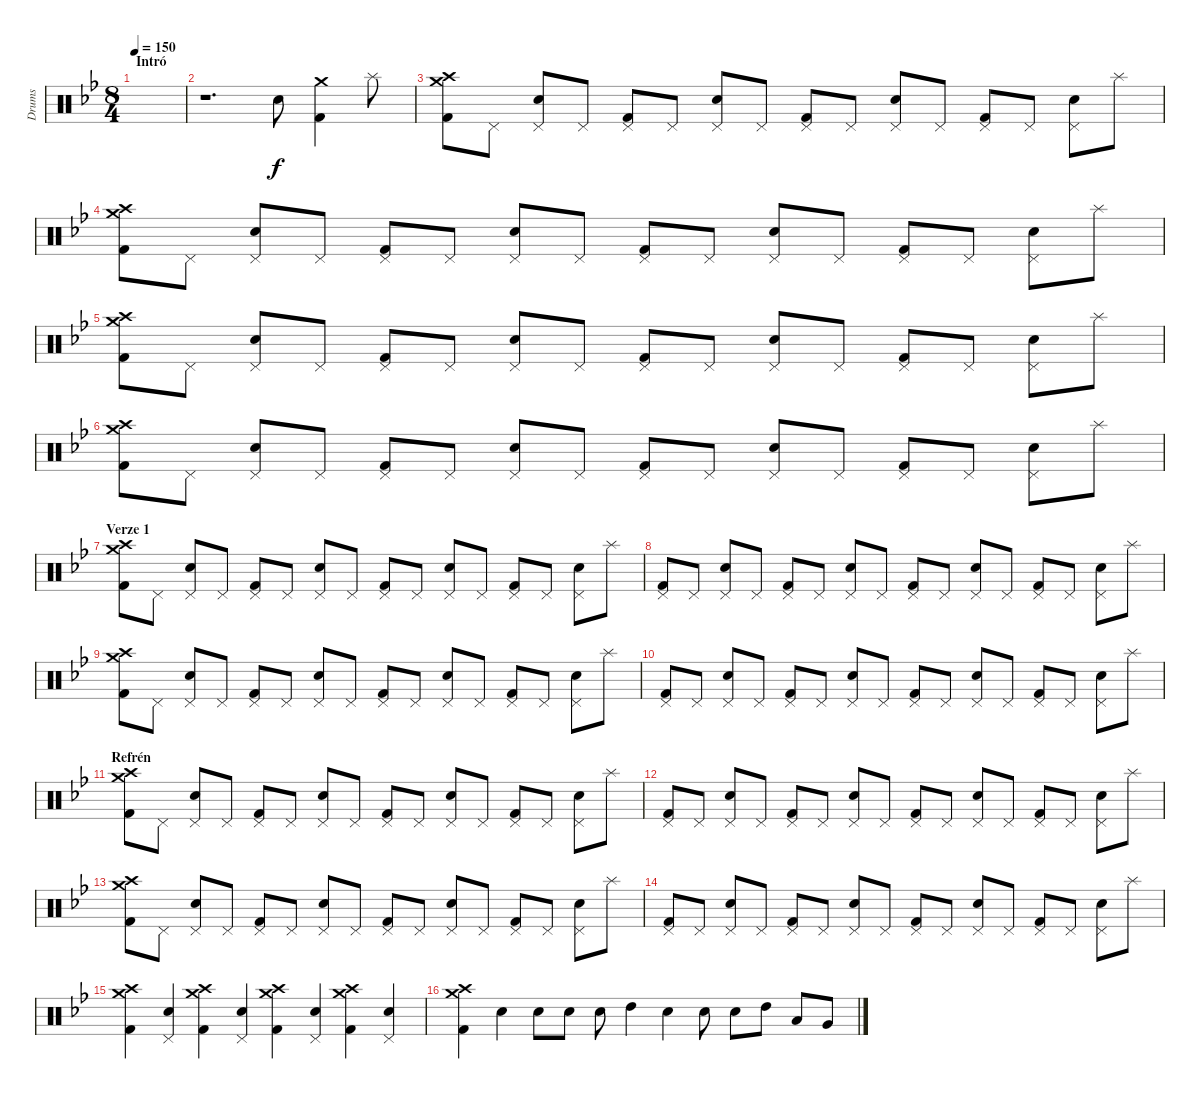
\track ("Drums" "Drums") {instrument percussion}
\staff {score}
\articulation defaults
\ts (8 4)
\section ("" "Intró")
\tempo 150
\clef neutral
\ks gminor
|
r.1{d} "Snare (hit) 2".8 ("Crash medium (hit)" "Kick (hit) 2").4 "Splash (hit)".8 |
("Crash medium (hit)" "Crash high (hit)" "Kick (hit) 2").8 "Pedal Hi-Hat (hit)".8 ("Pedal Hi-Hat (hit)" "Snare (hit) 2").8 "Pedal Hi-Hat (hit)".8 ("Pedal Hi-Hat (hit)" "Kick (hit) 2").8 "Pedal Hi-Hat (hit)".8 ("Pedal Hi-Hat (hit)" "Snare (hit) 2").8 "Pedal Hi-Hat (hit)".8 ("Pedal Hi-Hat (hit)" "Kick (hit) 2").8 "Pedal Hi-Hat (hit)".8 ("Pedal Hi-Hat (hit)" "Snare (hit) 2").8 "Pedal Hi-Hat (hit)".8 ("Pedal Hi-Hat (hit)" "Kick (hit) 2").8 "Pedal Hi-Hat (hit)".8 ("Pedal Hi-Hat (hit)" "Snare (hit) 2").8 "Splash (hit)".8 |
("Crash medium (hit)" "Crash high (hit)" "Kick (hit) 2").8 "Pedal Hi-Hat (hit)".8 ("Pedal Hi-Hat (hit)" "Snare (hit) 2").8 "Pedal Hi-Hat (hit)".8 ("Pedal Hi-Hat (hit)" "Kick (hit) 2").8 "Pedal Hi-Hat (hit)".8 ("Pedal Hi-Hat (hit)" "Snare (hit) 2").8 "Pedal Hi-Hat (hit)".8 ("Pedal Hi-Hat (hit)" "Kick (hit) 2").8 "Pedal Hi-Hat (hit)".8 ("Pedal Hi-Hat (hit)" "Snare (hit) 2").8 "Pedal Hi-Hat (hit)".8 ("Pedal Hi-Hat (hit)" "Kick (hit) 2").8 "Pedal Hi-Hat (hit)".8 ("Pedal Hi-Hat (hit)" "Snare (hit) 2").8 "Splash (hit)".8 |
("Crash medium (hit)" "Crash high (hit)" "Kick (hit) 2").8 "Pedal Hi-Hat (hit)".8 ("Pedal Hi-Hat (hit)" "Snare (hit) 2").8 "Pedal Hi-Hat (hit)".8 ("Pedal Hi-Hat (hit)" "Kick (hit) 2").8 "Pedal Hi-Hat (hit)".8 ("Pedal Hi-Hat (hit)" "Snare (hit) 2").8 "Pedal Hi-Hat (hit)".8 ("Pedal Hi-Hat (hit)" "Kick (hit) 2").8 "Pedal Hi-Hat (hit)".8 ("Pedal Hi-Hat (hit)" "Snare (hit) 2").8 "Pedal Hi-Hat (hit)".8 ("Pedal Hi-Hat (hit)" "Kick (hit) 2").8 "Pedal Hi-Hat (hit)".8 ("Pedal Hi-Hat (hit)" "Snare (hit) 2").8 "Splash (hit)".8 |
("Crash medium (hit)" "Crash high (hit)" "Kick (hit) 2").8 "Pedal Hi-Hat (hit)".8 ("Pedal Hi-Hat (hit)" "Snare (hit) 2").8 "Pedal Hi-Hat (hit)".8 ("Pedal Hi-Hat (hit)" "Kick (hit) 2").8 "Pedal Hi-Hat (hit)".8 ("Pedal Hi-Hat (hit)" "Snare (hit) 2").8 "Pedal Hi-Hat (hit)".8 ("Pedal Hi-Hat (hit)" "Kick (hit) 2").8 "Pedal Hi-Hat (hit)".8 ("Pedal Hi-Hat (hit)" "Snare (hit) 2").8 "Pedal Hi-Hat (hit)".8 ("Pedal Hi-Hat (hit)" "Kick (hit) 2").8 "Pedal Hi-Hat (hit)".8 ("Pedal Hi-Hat (hit)" "Snare (hit) 2").8 "Splash (hit)".8 |
\section ("" "Verze 1")
("Crash medium (hit)" "Crash high (hit)" "Kick (hit) 2").8 "Pedal Hi-Hat (hit)".8 ("Pedal Hi-Hat (hit)" "Snare (hit) 2").8 "Pedal Hi-Hat (hit)".8 ("Pedal Hi-Hat (hit)" "Kick (hit) 2").8 "Pedal Hi-Hat (hit)".8 ("Pedal Hi-Hat (hit)" "Snare (hit) 2").8 "Pedal Hi-Hat (hit)".8 ("Pedal Hi-Hat (hit)" "Kick (hit) 2").8 "Pedal Hi-Hat (hit)".8 ("Pedal Hi-Hat (hit)" "Snare (hit) 2").8 "Pedal Hi-Hat (hit)".8 ("Pedal Hi-Hat (hit)" "Kick (hit) 2").8 "Pedal Hi-Hat (hit)".8 ("Pedal Hi-Hat (hit)" "Snare (hit) 2").8 "Splash (hit)".8 |
("Pedal Hi-Hat (hit)" "Kick (hit) 2").8 "Pedal Hi-Hat (hit)".8 ("Pedal Hi-Hat (hit)" "Snare (hit) 2").8 "Pedal Hi-Hat (hit)".8 ("Pedal Hi-Hat (hit)" "Kick (hit) 2").8 "Pedal Hi-Hat (hit)".8 ("Pedal Hi-Hat (hit)" "Snare (hit) 2").8 "Pedal Hi-Hat (hit)".8 ("Pedal Hi-Hat (hit)" "Kick (hit) 2").8 "Pedal Hi-Hat (hit)".8 ("Pedal Hi-Hat (hit)" "Snare (hit) 2").8 "Pedal Hi-Hat (hit)".8 ("Pedal Hi-Hat (hit)" "Kick (hit) 2").8 "Pedal Hi-Hat (hit)".8 ("Pedal Hi-Hat (hit)" "Snare (hit) 2").8 "Splash (hit)".8 |
("Crash medium (hit)" "Crash high (hit)" "Kick (hit) 2").8 "Pedal Hi-Hat (hit)".8 ("Pedal Hi-Hat (hit)" "Snare (hit) 2").8 "Pedal Hi-Hat (hit)".8 ("Pedal Hi-Hat (hit)" "Kick (hit) 2").8 "Pedal Hi-Hat (hit)".8 ("Pedal Hi-Hat (hit)" "Snare (hit) 2").8 "Pedal Hi-Hat (hit)".8 ("Pedal Hi-Hat (hit)" "Kick (hit) 2").8 "Pedal Hi-Hat (hit)".8 ("Pedal Hi-Hat (hit)" "Snare (hit) 2").8 "Pedal Hi-Hat (hit)".8 ("Pedal Hi-Hat (hit)" "Kick (hit) 2").8 "Pedal Hi-Hat (hit)".8 ("Pedal Hi-Hat (hit)" "Snare (hit) 2").8 "Splash (hit)".8 |
("Pedal Hi-Hat (hit)" "Kick (hit) 2").8 "Pedal Hi-Hat (hit)".8 ("Pedal Hi-Hat (hit)" "Snare (hit) 2").8 "Pedal Hi-Hat (hit)".8 ("Pedal Hi-Hat (hit)" "Kick (hit) 2").8 "Pedal Hi-Hat (hit)".8 ("Pedal Hi-Hat (hit)" "Snare (hit) 2").8 "Pedal Hi-Hat (hit)".8 ("Pedal Hi-Hat (hit)" "Kick (hit) 2").8 "Pedal Hi-Hat (hit)".8 ("Pedal Hi-Hat (hit)" "Snare (hit) 2").8 "Pedal Hi-Hat (hit)".8 ("Pedal Hi-Hat (hit)" "Kick (hit) 2").8 "Pedal Hi-Hat (hit)".8 ("Pedal Hi-Hat (hit)" "Snare (hit) 2").8 "Splash (hit)".8 |
\section ("" "Refrén")
("Crash medium (hit)" "Crash high (hit)" "Kick (hit) 2").8 "Pedal Hi-Hat (hit)".8 ("Pedal Hi-Hat (hit)" "Snare (hit) 2").8 "Pedal Hi-Hat (hit)".8 ("Pedal Hi-Hat (hit)" "Kick (hit) 2").8 "Pedal Hi-Hat (hit)".8 ("Pedal Hi-Hat (hit)" "Snare (hit) 2").8 "Pedal Hi-Hat (hit)".8 ("Pedal Hi-Hat (hit)" "Kick (hit) 2").8 "Pedal Hi-Hat (hit)".8 ("Pedal Hi-Hat (hit)" "Snare (hit) 2").8 "Pedal Hi-Hat (hit)".8 ("Pedal Hi-Hat (hit)" "Kick (hit) 2").8 "Pedal Hi-Hat (hit)".8 ("Pedal Hi-Hat (hit)" "Snare (hit) 2").8 "Splash (hit)".8 |
("Pedal Hi-Hat (hit)" "Kick (hit) 2").8 "Pedal Hi-Hat (hit)".8 ("Pedal Hi-Hat (hit)" "Snare (hit) 2").8 "Pedal Hi-Hat (hit)".8 ("Pedal Hi-Hat (hit)" "Kick (hit) 2").8 "Pedal Hi-Hat (hit)".8 ("Pedal Hi-Hat (hit)" "Snare (hit) 2").8 "Pedal Hi-Hat (hit)".8 ("Pedal Hi-Hat (hit)" "Kick (hit) 2").8 "Pedal Hi-Hat (hit)".8 ("Pedal Hi-Hat (hit)" "Snare (hit) 2").8 "Pedal Hi-Hat (hit)".8 ("Pedal Hi-Hat (hit)" "Kick (hit) 2").8 "Pedal Hi-Hat (hit)".8 ("Pedal Hi-Hat (hit)" "Snare (hit) 2").8 "Splash (hit)".8 |
("Crash medium (hit)" "Crash high (hit)" "Kick (hit) 2").8 "Pedal Hi-Hat (hit)".8 ("Pedal Hi-Hat (hit)" "Snare (hit) 2").8 "Pedal Hi-Hat (hit)".8 ("Pedal Hi-Hat (hit)" "Kick (hit) 2").8 "Pedal Hi-Hat (hit)".8 ("Pedal Hi-Hat (hit)" "Snare (hit) 2").8 "Pedal Hi-Hat (hit)".8 ("Pedal Hi-Hat (hit)" "Kick (hit) 2").8 "Pedal Hi-Hat (hit)".8 ("Pedal Hi-Hat (hit)" "Snare (hit) 2").8 "Pedal Hi-Hat (hit)".8 ("Pedal Hi-Hat (hit)" "Kick (hit) 2").8 "Pedal Hi-Hat (hit)".8 ("Pedal Hi-Hat (hit)" "Snare (hit) 2").8 "Splash (hit)".8 |
("Pedal Hi-Hat (hit)" "Kick (hit) 2").8 "Pedal Hi-Hat (hit)".8 ("Pedal Hi-Hat (hit)" "Snare (hit) 2").8 "Pedal Hi-Hat (hit)".8 ("Pedal Hi-Hat (hit)" "Kick (hit) 2").8 "Pedal Hi-Hat (hit)".8 ("Pedal Hi-Hat (hit)" "Snare (hit) 2").8 "Pedal Hi-Hat (hit)".8 ("Pedal Hi-Hat (hit)" "Kick (hit) 2").8 "Pedal Hi-Hat (hit)".8 ("Pedal Hi-Hat (hit)" "Snare (hit) 2").8 "Pedal Hi-Hat (hit)".8 ("Pedal Hi-Hat (hit)" "Kick (hit) 2").8 "Pedal Hi-Hat (hit)".8 ("Pedal Hi-Hat (hit)" "Snare (hit) 2").8 "Splash (hit)".8 |
("Crash medium (hit)" "Crash high (hit)" "Kick (hit) 2").4 ("Pedal Hi-Hat (hit)" "Snare (hit) 2").4 ("Crash medium (hit)" "Crash high (hit)" "Kick (hit) 2").4 ("Pedal Hi-Hat (hit)" "Snare (hit) 2").4 ("Crash medium (hit)" "Crash high (hit)" "Kick (hit) 2").4 ("Pedal Hi-Hat (hit)" "Snare (hit) 2").4 ("Crash medium (hit)" "Crash high (hit)" "Kick (hit) 2").4 ("Pedal Hi-Hat (hit)" "Snare (hit) 2").4 |
("Crash medium (hit)" "Crash high (hit)" "Kick (hit) 2").4 "Snare (hit) 2".4 "Snare (hit) 2".8 "Snare (hit) 2".8 "Snare (hit) 2".8 "High Tom (hit)".4 "Snare (hit) 2".4 "Snare (hit) 2".8 "Snare (hit) 2".8 "High Tom (hit)".8 "Low Tom (hit)".8 "Very Low Tom (hit)".8
